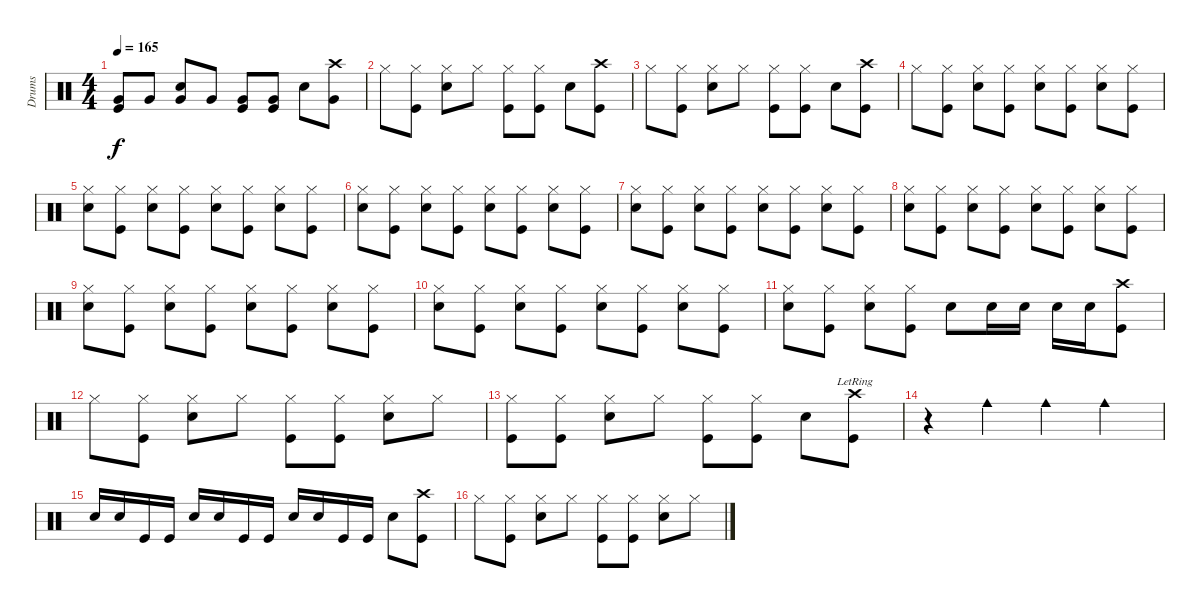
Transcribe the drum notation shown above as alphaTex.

\track ("Drums" "Drums") {instrument percussion}
\staff {score}
\articulation defaults
\ts (4 4)
\tempo 165
\clef neutral
\ks c
("Very Low Tom (hit)" "Kick (hit)").8{dy f} "Very Low Tom (hit)".8 ("Snare (hit) 2" "Very Low Tom (hit)").8 "Very Low Tom (hit)".8 ("Very Low Tom (hit)" "Kick (hit)").8 ("Very Low Tom (hit)" "Kick (hit)").8 "Snare (hit) 2".8 ("Crash high (hit)" "Very Low Tom (hit)").8 |
"Hi-Hat (closed)".8 ("Hi-Hat (closed)" "Kick (hit)").8 ("Hi-Hat (closed)" "Snare (hit) 2").8 "Hi-Hat (closed)".8 ("Hi-Hat (closed)" "Kick (hit)").8 ("Hi-Hat (closed)" "Kick (hit)").8 "Snare (hit) 2".8 ("Crash high (hit)" "Kick (hit)").8 |
"Hi-Hat (closed)".8 ("Hi-Hat (closed)" "Kick (hit)").8 ("Hi-Hat (closed)" "Snare (hit) 2").8 "Hi-Hat (closed)".8 ("Hi-Hat (closed)" "Kick (hit)").8 ("Hi-Hat (closed)" "Kick (hit)").8 "Snare (hit) 2".8 ("Crash high (hit)" "Kick (hit)").8 |
"Hi-Hat (closed)".8 ("Hi-Hat (closed)" "Kick (hit)").8 ("Hi-Hat (closed)" "Snare (hit) 2").8 ("Hi-Hat (closed)" "Kick (hit)").8 ("Hi-Hat (closed)" "Snare (hit) 2").8 ("Hi-Hat (closed)" "Kick (hit)").8 ("Hi-Hat (closed)" "Snare (hit) 2").8 ("Hi-Hat (closed)" "Kick (hit)").8 |
("Hi-Hat (closed)" "Snare (hit) 2").8 ("Hi-Hat (closed)" "Kick (hit)").8 ("Hi-Hat (closed)" "Snare (hit) 2").8 ("Hi-Hat (closed)" "Kick (hit)").8 ("Hi-Hat (closed)" "Snare (hit) 2").8 ("Hi-Hat (closed)" "Kick (hit)").8 ("Hi-Hat (closed)" "Snare (hit) 2").8 ("Hi-Hat (closed)" "Kick (hit)").8 |
("Hi-Hat (closed)" "Snare (hit) 2").8 ("Hi-Hat (closed)" "Kick (hit)").8 ("Hi-Hat (closed)" "Snare (hit) 2").8 ("Hi-Hat (closed)" "Kick (hit)").8 ("Hi-Hat (closed)" "Snare (hit) 2").8 ("Hi-Hat (closed)" "Kick (hit)").8 ("Hi-Hat (closed)" "Snare (hit) 2").8 ("Hi-Hat (closed)" "Kick (hit)").8 |
("Hi-Hat (closed)" "Snare (hit) 2").8 ("Hi-Hat (closed)" "Kick (hit)").8 ("Hi-Hat (closed)" "Snare (hit) 2").8 ("Hi-Hat (closed)" "Kick (hit)").8 ("Hi-Hat (closed)" "Snare (hit) 2").8 ("Hi-Hat (closed)" "Kick (hit)").8 ("Hi-Hat (closed)" "Snare (hit) 2").8 ("Hi-Hat (closed)" "Kick (hit)").8 |
("Hi-Hat (closed)" "Snare (hit) 2").8 ("Hi-Hat (closed)" "Kick (hit)").8 ("Hi-Hat (closed)" "Snare (hit) 2").8 ("Hi-Hat (closed)" "Kick (hit)").8 ("Hi-Hat (closed)" "Snare (hit) 2").8 ("Hi-Hat (closed)" "Kick (hit)").8 ("Hi-Hat (closed)" "Snare (hit) 2").8 ("Hi-Hat (closed)" "Kick (hit)").8 |
("Hi-Hat (closed)" "Snare (hit) 2").8 ("Hi-Hat (closed)" "Kick (hit)").8 ("Hi-Hat (closed)" "Snare (hit) 2").8 ("Hi-Hat (closed)" "Kick (hit)").8 ("Hi-Hat (closed)" "Snare (hit) 2").8 ("Hi-Hat (closed)" "Kick (hit)").8 ("Hi-Hat (closed)" "Snare (hit) 2").8 ("Hi-Hat (closed)" "Kick (hit)").8 |
("Hi-Hat (closed)" "Snare (hit) 2").8 ("Hi-Hat (closed)" "Kick (hit)").8 ("Hi-Hat (closed)" "Snare (hit) 2").8 ("Hi-Hat (closed)" "Kick (hit)").8 ("Hi-Hat (closed)" "Snare (hit) 2").8 ("Hi-Hat (closed)" "Kick (hit)").8 ("Hi-Hat (closed)" "Snare (hit) 2").8 ("Hi-Hat (closed)" "Kick (hit)").8 |
("Hi-Hat (closed)" "Snare (hit) 2").8 ("Hi-Hat (closed)" "Kick (hit)").8 ("Hi-Hat (closed)" "Snare (hit) 2").8 ("Hi-Hat (closed)" "Kick (hit)").8 "Snare (hit) 2".8 "Snare (hit) 2".16 "Snare (hit) 2".16 "Snare (hit) 2".16 "Snare (hit) 2".16 ("Crash high (hit)" "Kick (hit)").8 |
"Hi-Hat (closed)".8 ("Hi-Hat (closed)" "Kick (hit)").8 ("Hi-Hat (closed)" "Snare (hit) 2").8 "Hi-Hat (closed)".8 ("Hi-Hat (closed)" "Kick (hit)").8 ("Hi-Hat (closed)" "Kick (hit)").8 ("Hi-Hat (closed)" "Snare (hit) 2").8 "Hi-Hat (closed)".8 |
("Hi-Hat (closed)" "Kick (hit)").8 ("Hi-Hat (closed)" "Kick (hit)").8 ("Hi-Hat (closed)" "Snare (hit) 2").8 "Hi-Hat (closed)".8 ("Hi-Hat (closed)" "Kick (hit)").8 ("Hi-Hat (closed)" "Kick (hit)").8 "Snare (hit) 2".8 ("Crash high (hit)"{lr} "Kick (hit)").8 |
r.4 "Cowbell medium (hit)".4 "Cowbell medium (hit)".4 "Cowbell medium (hit)".4 |
"Snare (hit) 2".16 "Snare (hit) 2".16 "Kick (hit)".16 "Kick (hit)".16 "Snare (hit) 2".16 "Snare (hit) 2".16 "Kick (hit)".16 "Kick (hit)".16 "Snare (hit) 2".16 "Snare (hit) 2".16 "Kick (hit)".16 "Kick (hit)".16 "Snare (hit) 2".8 ("Crash high (hit)" "Kick (hit)").8 |
"Hi-Hat (closed)".8 ("Hi-Hat (closed)" "Kick (hit)").8 ("Hi-Hat (closed)" "Snare (hit) 2").8 "Hi-Hat (closed)".8 ("Hi-Hat (closed)" "Kick (hit)").8 ("Hi-Hat (closed)" "Kick (hit)").8 ("Hi-Hat (closed)" "Snare (hit) 2").8 "Hi-Hat (closed)".8
